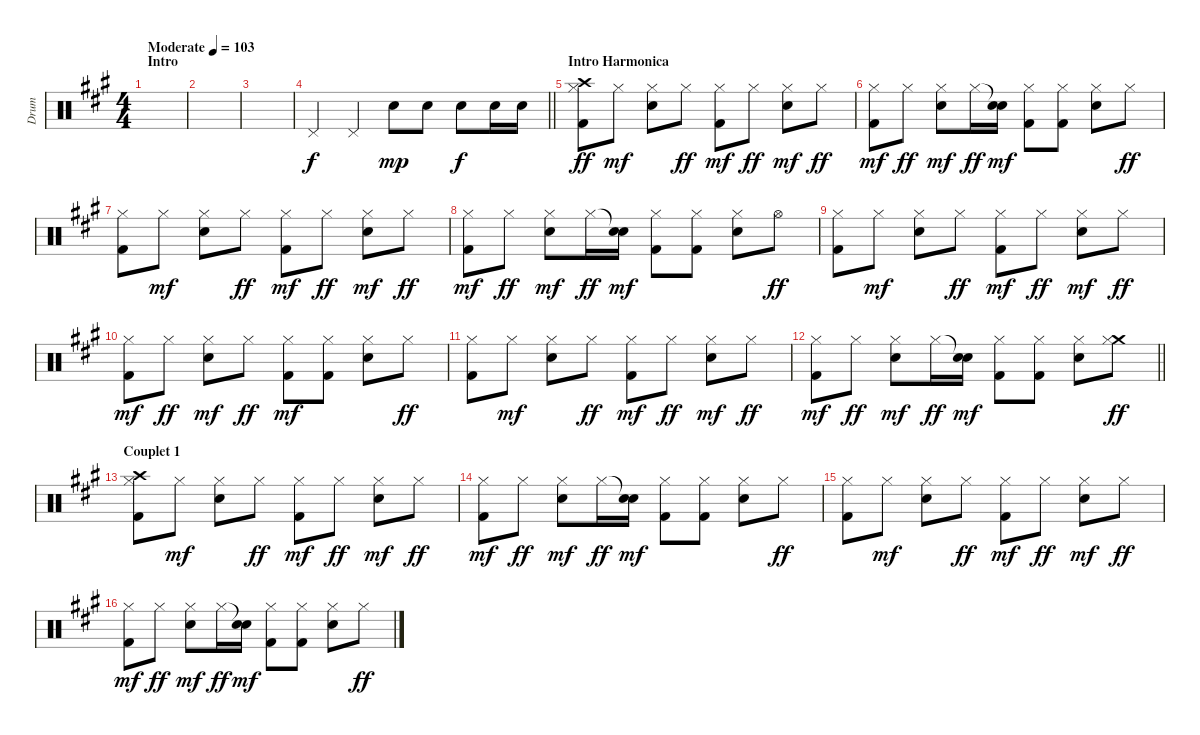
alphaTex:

\track ("Drum" "Drum") {instrument percussion}
\staff {score}
\articulation defaults
\ts (4 4)
\section ("" "Intro")
\tempo (103 "Moderate")
\clef neutral
\ks a
|
|
|
\barLineRight lightlight "Pedal Hi-Hat (hit)".4 "Pedal Hi-Hat (hit)".4 "Electric Snare (hit)".8{dy mp} "Electric Snare (hit)".8 "Electric Snare (hit)".8{dy f} "Electric Snare (hit)".16 "Electric Snare (hit)".16
|
\section ("" "Intro Harmonica")
("Crash high (hit)" "Hi-Hat (closed)" "Kick (hit) 2").8{dy ff} "Hi-Hat (closed)".8{dy mf} ("Hi-Hat (closed)" "Electric Snare (hit)").8 "Hi-Hat (closed)".8{dy ff} ("Hi-Hat (closed)" "Kick (hit) 2").8{dy mf} "Hi-Hat (closed)".8{dy ff} ("Hi-Hat (closed)" "Electric Snare (hit)").8{dy mf} "Hi-Hat (closed)".8{dy ff} |
("Hi-Hat (closed)" "Kick (hit) 2").8{dy mf} "Hi-Hat (closed)".8{dy ff} ("Hi-Hat (closed)" "Electric Snare (hit)").8{dy mf} "Hi-Hat (closed)".16{dy ff} ("Snare (hit)"{t} "Electric Snare (hit)").16{dy mf} ("Hi-Hat (closed)" "Kick (hit) 2").8 ("Hi-Hat (closed)" "Kick (hit) 2").8 ("Hi-Hat (closed)" "Electric Snare (hit)").8 "Hi-Hat (closed)".8{dy ff} |
("Hi-Hat (closed)" "Kick (hit) 2").8 "Hi-Hat (closed)".8{dy mf} ("Hi-Hat (closed)" "Electric Snare (hit)").8 "Hi-Hat (closed)".8{dy ff} ("Hi-Hat (closed)" "Kick (hit) 2").8{dy mf} "Hi-Hat (closed)".8{dy ff} ("Hi-Hat (closed)" "Electric Snare (hit)").8{dy mf} "Hi-Hat (closed)".8{dy ff} |
("Hi-Hat (closed)" "Kick (hit) 2").8{dy mf} "Hi-Hat (closed)".8{dy ff} ("Hi-Hat (closed)" "Electric Snare (hit)").8{dy mf} "Hi-Hat (closed)".16{dy ff} ("Snare (hit)"{t} "Electric Snare (hit)").16{dy mf} ("Hi-Hat (closed)" "Kick (hit) 2").8 ("Hi-Hat (closed)" "Kick (hit) 2").8 ("Hi-Hat (closed)" "Electric Snare (hit)").8 "Hi-Hat (open)".8{dy ff} |
("Hi-Hat (closed)" "Kick (hit) 2").8 "Hi-Hat (closed)".8{dy mf} ("Hi-Hat (closed)" "Electric Snare (hit)").8 "Hi-Hat (closed)".8{dy ff} ("Hi-Hat (closed)" "Kick (hit) 2").8{dy mf} "Hi-Hat (closed)".8{dy ff} ("Hi-Hat (closed)" "Electric Snare (hit)").8{dy mf} "Hi-Hat (closed)".8{dy ff} |
("Hi-Hat (closed)" "Kick (hit) 2").8{dy mf} "Hi-Hat (closed)".8{dy ff} ("Hi-Hat (closed)" "Electric Snare (hit)").8{dy mf} "Hi-Hat (closed)".8{dy ff} ("Hi-Hat (closed)" "Kick (hit) 2").8{dy mf} ("Hi-Hat (closed)" "Kick (hit) 2").8 ("Hi-Hat (closed)" "Electric Snare (hit)").8 "Hi-Hat (closed)".8{dy ff} |
("Hi-Hat (closed)" "Kick (hit) 2").8 "Hi-Hat (closed)".8{dy mf} ("Hi-Hat (closed)" "Electric Snare (hit)").8 "Hi-Hat (closed)".8{dy ff} ("Hi-Hat (closed)" "Kick (hit) 2").8{dy mf} "Hi-Hat (closed)".8{dy ff} ("Hi-Hat (closed)" "Electric Snare (hit)").8{dy mf} "Hi-Hat (closed)".8{dy ff} |
\barLineRight lightlight
("Hi-Hat (closed)" "Kick (hit) 2").8{dy mf} "Hi-Hat (closed)".8{dy ff} ("Hi-Hat (closed)" "Electric Snare (hit)").8{dy mf} "Hi-Hat (closed)".16{dy ff} ("Snare (hit)"{t} "Electric Snare (hit)").16{dy mf} ("Hi-Hat (closed)" "Kick (hit) 2").8 ("Hi-Hat (closed)" "Kick (hit) 2").8 ("Hi-Hat (closed)" "Electric Snare (hit)").8 ("Crash medium (hit)" "Hi-Hat (closed)").8{dy ff} |
\section ("" "Couplet 1")
("Crash high (hit)" "Hi-Hat (closed)" "Kick (hit) 2").8 "Hi-Hat (closed)".8{dy mf} ("Hi-Hat (closed)" "Electric Snare (hit)").8 "Hi-Hat (closed)".8{dy ff} ("Hi-Hat (closed)" "Kick (hit) 2").8{dy mf} "Hi-Hat (closed)".8{dy ff} ("Hi-Hat (closed)" "Electric Snare (hit)").8{dy mf} "Hi-Hat (closed)".8{dy ff} |
("Hi-Hat (closed)" "Kick (hit) 2").8{dy mf} "Hi-Hat (closed)".8{dy ff} ("Hi-Hat (closed)" "Electric Snare (hit)").8{dy mf} "Hi-Hat (closed)".16{dy ff} ("Snare (hit)"{t} "Electric Snare (hit)").16{dy mf} ("Hi-Hat (closed)" "Kick (hit) 2").8 ("Hi-Hat (closed)" "Kick (hit) 2").8 ("Hi-Hat (closed)" "Electric Snare (hit)").8 "Hi-Hat (closed)".8{dy ff} |
("Hi-Hat (closed)" "Kick (hit) 2").8 "Hi-Hat (closed)".8{dy mf} ("Hi-Hat (closed)" "Electric Snare (hit)").8 "Hi-Hat (closed)".8{dy ff} ("Hi-Hat (closed)" "Kick (hit) 2").8{dy mf} "Hi-Hat (closed)".8{dy ff} ("Hi-Hat (closed)" "Electric Snare (hit)").8{dy mf} "Hi-Hat (closed)".8{dy ff} |
("Hi-Hat (closed)" "Kick (hit) 2").8{dy mf} "Hi-Hat (closed)".8{dy ff} ("Hi-Hat (closed)" "Electric Snare (hit)").8{dy mf} "Hi-Hat (closed)".16{dy ff} ("Snare (hit)"{t} "Electric Snare (hit)").16{dy mf} ("Hi-Hat (closed)" "Kick (hit) 2").8 ("Hi-Hat (closed)" "Kick (hit) 2").8 ("Hi-Hat (closed)" "Electric Snare (hit)").8 "Hi-Hat (closed)".8{dy ff}
